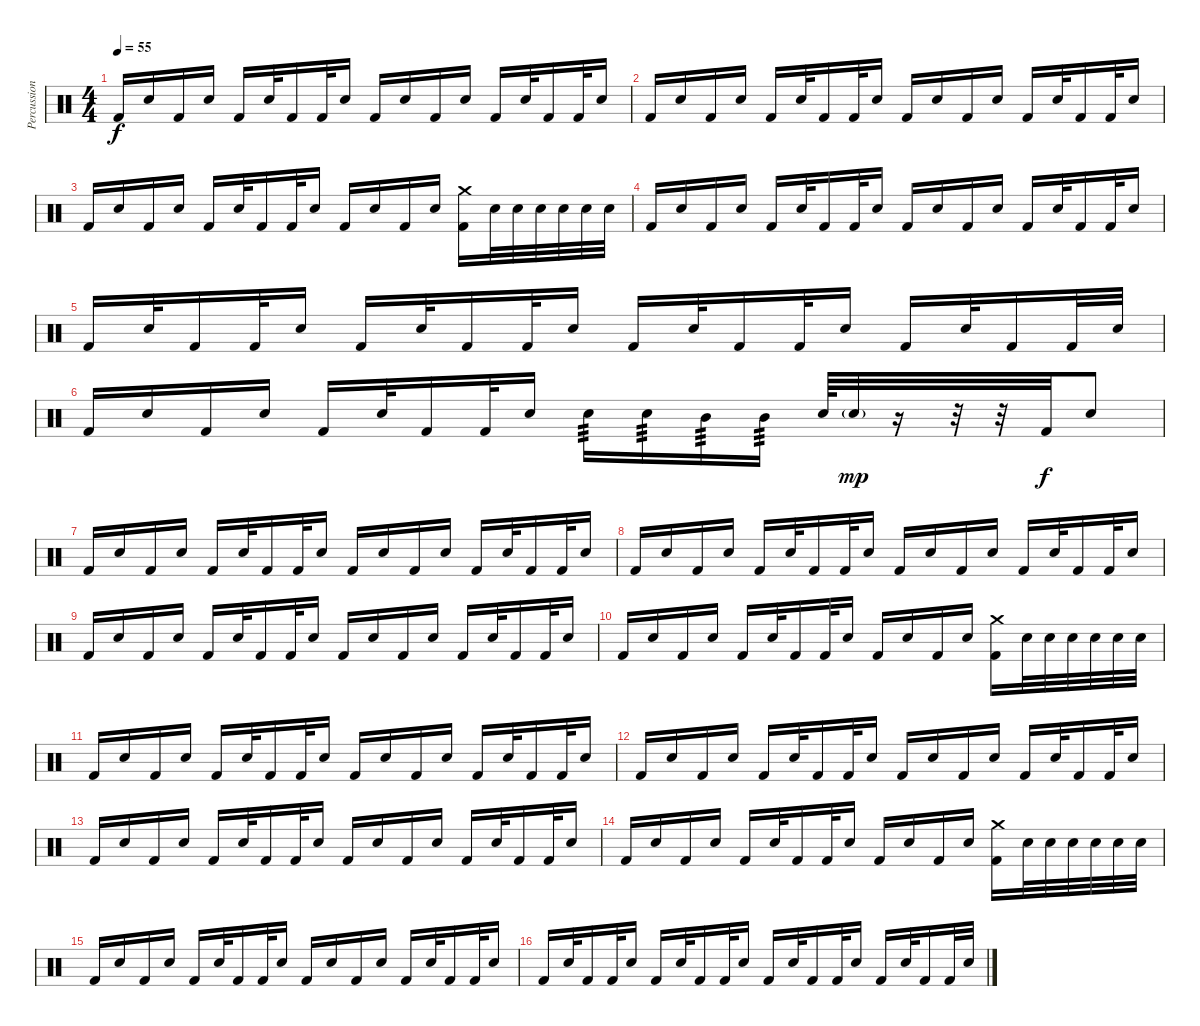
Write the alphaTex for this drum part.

\track ("Percussion" "Percussion") {instrument percussion}
\staff {score}
\articulation defaults
\ts (4 4)
\tempo 55
\clef neutral
\ks c "Kick (hit) 2".16{dy f} "Snare (hit) 2".16 "Kick (hit) 2".16 "Snare (hit) 2".16 "Kick (hit) 2".16 "Snare (hit) 2".32 "Kick (hit) 2".16 "Kick (hit) 2".32 "Snare (hit) 2".16 "Kick (hit) 2".16 "Snare (hit) 2".16 "Kick (hit) 2".16 "Snare (hit) 2".16 "Kick (hit) 2".16 "Snare (hit) 2".32 "Kick (hit) 2".16 "Kick (hit) 2".32 "Snare (hit) 2".16
|
"Kick (hit) 2".16 "Snare (hit) 2".16 "Kick (hit) 2".16 "Snare (hit) 2".16 "Kick (hit) 2".16 "Snare (hit) 2".32 "Kick (hit) 2".16 "Kick (hit) 2".32 "Snare (hit) 2".16 "Kick (hit) 2".16 "Snare (hit) 2".16 "Kick (hit) 2".16 "Snare (hit) 2".16 "Kick (hit) 2".16 "Snare (hit) 2".32 "Kick (hit) 2".16 "Kick (hit) 2".32 "Snare (hit) 2".16 |
"Kick (hit) 2".16 "Snare (hit) 2".16 "Kick (hit) 2".16 "Snare (hit) 2".16 "Kick (hit) 2".16 "Snare (hit) 2".32 "Kick (hit) 2".16 "Kick (hit) 2".32 "Snare (hit) 2".16 "Kick (hit) 2".16 "Snare (hit) 2".16 "Kick (hit) 2".16 "Snare (hit) 2".16 ("Kick (hit) 2" "Crash medium (hit)").16 "Snare (hit) 2".32 "Snare (hit) 2".32 "Snare (hit) 2".32 "Snare (hit) 2".32 "Snare (hit) 2".32 "Snare (hit) 2".32 |
"Kick (hit) 2".16 "Snare (hit) 2".16 "Kick (hit) 2".16 "Snare (hit) 2".16 "Kick (hit) 2".16 "Snare (hit) 2".32 "Kick (hit) 2".16 "Kick (hit) 2".32 "Snare (hit) 2".16 "Kick (hit) 2".16 "Snare (hit) 2".16 "Kick (hit) 2".16 "Snare (hit) 2".16 "Kick (hit) 2".16 "Snare (hit) 2".32 "Kick (hit) 2".16 "Kick (hit) 2".32 "Snare (hit) 2".16 |
"Kick (hit) 2".16 "Snare (hit) 2".32 "Kick (hit) 2".16 "Kick (hit) 2".32 "Snare (hit) 2".16 "Kick (hit) 2".16 "Snare (hit) 2".32 "Kick (hit) 2".16 "Kick (hit) 2".32 "Snare (hit) 2".16 "Kick (hit) 2".16 "Snare (hit) 2".32 "Kick (hit) 2".16 "Kick (hit) 2".32 "Snare (hit) 2".16 "Kick (hit) 2".16 "Snare (hit) 2".32 "Kick (hit) 2".16 "Kick (hit) 2".32 "Snare (hit) 2".32 |
"Kick (hit) 2".16 "Snare (hit) 2".16 "Kick (hit) 2".16 "Snare (hit) 2".16 "Kick (hit) 2".16 "Snare (hit) 2".32 "Kick (hit) 2".16 "Kick (hit) 2".32 "Snare (hit) 2".16 "Snare (hit) 2".16{tp 3} "Snare (hit) 2".16{tp 3} "Mid Tom (hit)".16{tp 3} "Mid Tom (hit)".16{tp 3} "Snare (hit) 2".64 "Snare (hit) 2"{g}.32{dy mp} r.16 r.32 r.32 "Kick (hit) 2".32{dy f} "Snare (hit) 2".8 |
"Kick (hit) 2".16 "Snare (hit) 2".16 "Kick (hit) 2".16 "Snare (hit) 2".16 "Kick (hit) 2".16 "Snare (hit) 2".32 "Kick (hit) 2".16 "Kick (hit) 2".32 "Snare (hit) 2".16 "Kick (hit) 2".16 "Snare (hit) 2".16 "Kick (hit) 2".16 "Snare (hit) 2".16 "Kick (hit) 2".16 "Snare (hit) 2".32 "Kick (hit) 2".16 "Kick (hit) 2".32 "Snare (hit) 2".16 |
"Kick (hit) 2".16 "Snare (hit) 2".16 "Kick (hit) 2".16 "Snare (hit) 2".16 "Kick (hit) 2".16 "Snare (hit) 2".32 "Kick (hit) 2".16 "Kick (hit) 2".32 "Snare (hit) 2".16 "Kick (hit) 2".16 "Snare (hit) 2".16 "Kick (hit) 2".16 "Snare (hit) 2".16 "Kick (hit) 2".16 "Snare (hit) 2".32 "Kick (hit) 2".16 "Kick (hit) 2".32 "Snare (hit) 2".16 |
"Kick (hit) 2".16 "Snare (hit) 2".16 "Kick (hit) 2".16 "Snare (hit) 2".16 "Kick (hit) 2".16 "Snare (hit) 2".32 "Kick (hit) 2".16 "Kick (hit) 2".32 "Snare (hit) 2".16 "Kick (hit) 2".16 "Snare (hit) 2".16 "Kick (hit) 2".16 "Snare (hit) 2".16 "Kick (hit) 2".16 "Snare (hit) 2".32 "Kick (hit) 2".16 "Kick (hit) 2".32 "Snare (hit) 2".16 |
"Kick (hit) 2".16 "Snare (hit) 2".16 "Kick (hit) 2".16 "Snare (hit) 2".16 "Kick (hit) 2".16 "Snare (hit) 2".32 "Kick (hit) 2".16 "Kick (hit) 2".32 "Snare (hit) 2".16 "Kick (hit) 2".16 "Snare (hit) 2".16 "Kick (hit) 2".16 "Snare (hit) 2".16 ("Kick (hit) 2" "Crash medium (hit)").16 "Snare (hit) 2".32 "Snare (hit) 2".32 "Snare (hit) 2".32 "Snare (hit) 2".32 "Snare (hit) 2".32 "Snare (hit) 2".32 |
"Kick (hit) 2".16 "Snare (hit) 2".16 "Kick (hit) 2".16 "Snare (hit) 2".16 "Kick (hit) 2".16 "Snare (hit) 2".32 "Kick (hit) 2".16 "Kick (hit) 2".32 "Snare (hit) 2".16 "Kick (hit) 2".16 "Snare (hit) 2".16 "Kick (hit) 2".16 "Snare (hit) 2".16 "Kick (hit) 2".16 "Snare (hit) 2".32 "Kick (hit) 2".16 "Kick (hit) 2".32 "Snare (hit) 2".16 |
"Kick (hit) 2".16 "Snare (hit) 2".16 "Kick (hit) 2".16 "Snare (hit) 2".16 "Kick (hit) 2".16 "Snare (hit) 2".32 "Kick (hit) 2".16 "Kick (hit) 2".32 "Snare (hit) 2".16 "Kick (hit) 2".16 "Snare (hit) 2".16 "Kick (hit) 2".16 "Snare (hit) 2".16 "Kick (hit) 2".16 "Snare (hit) 2".32 "Kick (hit) 2".16 "Kick (hit) 2".32 "Snare (hit) 2".16 |
"Kick (hit) 2".16 "Snare (hit) 2".16 "Kick (hit) 2".16 "Snare (hit) 2".16 "Kick (hit) 2".16 "Snare (hit) 2".32 "Kick (hit) 2".16 "Kick (hit) 2".32 "Snare (hit) 2".16 "Kick (hit) 2".16 "Snare (hit) 2".16 "Kick (hit) 2".16 "Snare (hit) 2".16 "Kick (hit) 2".16 "Snare (hit) 2".32 "Kick (hit) 2".16 "Kick (hit) 2".32 "Snare (hit) 2".16 |
"Kick (hit) 2".16 "Snare (hit) 2".16 "Kick (hit) 2".16 "Snare (hit) 2".16 "Kick (hit) 2".16 "Snare (hit) 2".32 "Kick (hit) 2".16 "Kick (hit) 2".32 "Snare (hit) 2".16 "Kick (hit) 2".16 "Snare (hit) 2".16 "Kick (hit) 2".16 "Snare (hit) 2".16 ("Kick (hit) 2" "Crash medium (hit)").16 "Snare (hit) 2".32 "Snare (hit) 2".32 "Snare (hit) 2".32 "Snare (hit) 2".32 "Snare (hit) 2".32 "Snare (hit) 2".32 |
"Kick (hit) 2".16 "Snare (hit) 2".16 "Kick (hit) 2".16 "Snare (hit) 2".16 "Kick (hit) 2".16 "Snare (hit) 2".32 "Kick (hit) 2".16 "Kick (hit) 2".32 "Snare (hit) 2".16 "Kick (hit) 2".16 "Snare (hit) 2".16 "Kick (hit) 2".16 "Snare (hit) 2".16 "Kick (hit) 2".16 "Snare (hit) 2".32 "Kick (hit) 2".16 "Kick (hit) 2".32 "Snare (hit) 2".16 |
"Kick (hit) 2".16 "Snare (hit) 2".32 "Kick (hit) 2".16 "Kick (hit) 2".32 "Snare (hit) 2".16 "Kick (hit) 2".16 "Snare (hit) 2".32 "Kick (hit) 2".16 "Kick (hit) 2".32 "Snare (hit) 2".16 "Kick (hit) 2".16 "Snare (hit) 2".32 "Kick (hit) 2".16 "Kick (hit) 2".32 "Snare (hit) 2".16 "Kick (hit) 2".16 "Snare (hit) 2".32 "Kick (hit) 2".16 "Kick (hit) 2".32 "Snare (hit) 2".32
